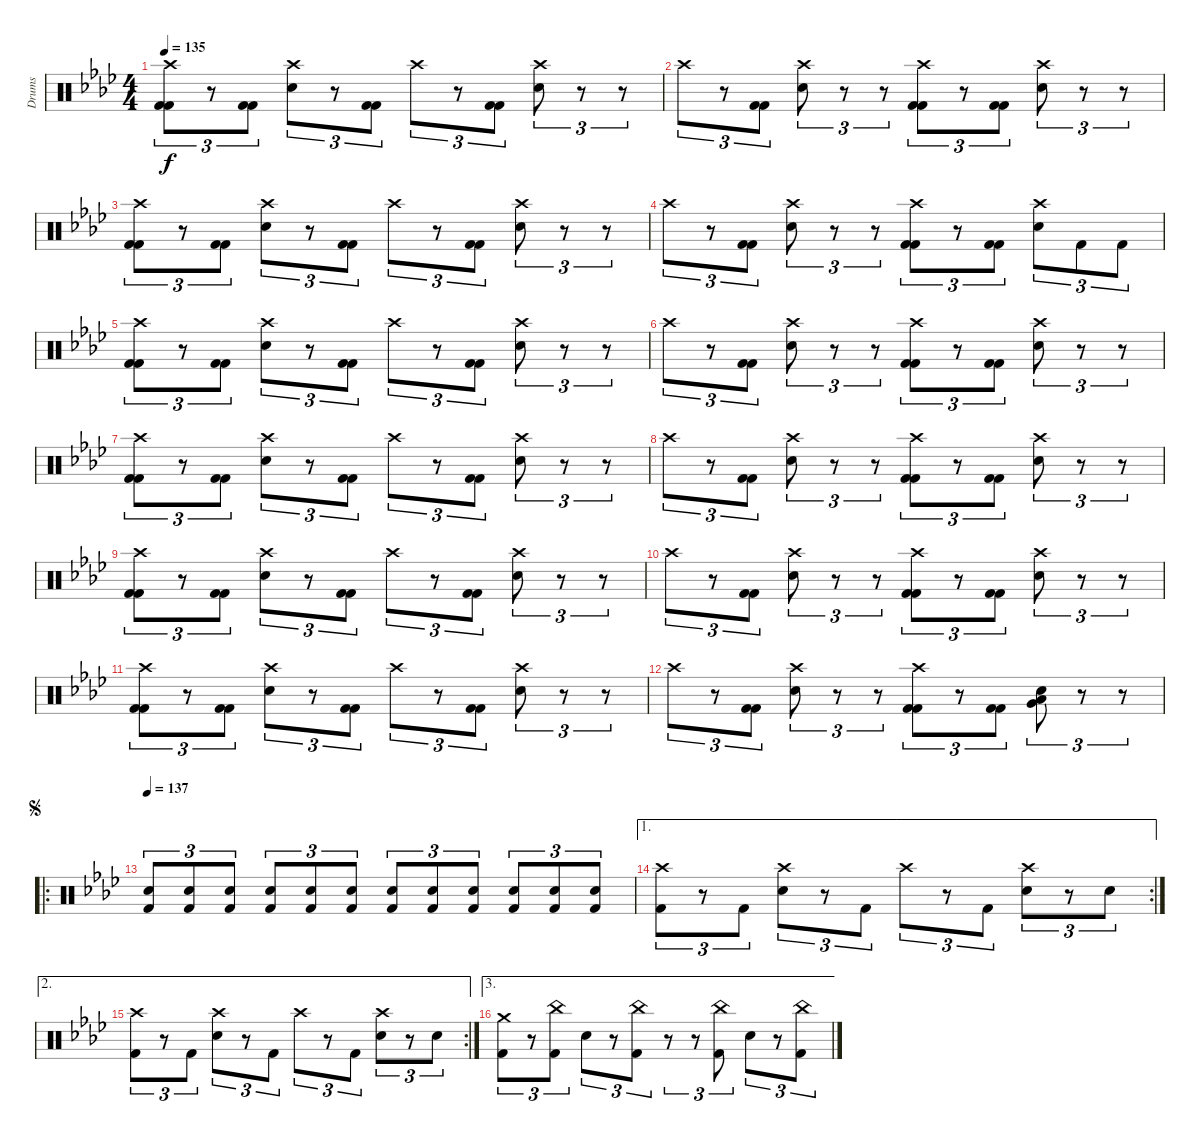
\track ("Drums" "Drums") {instrument percussion}
\staff {score}
\articulation defaults
\ts (4 4)
\tempo 135
\clef neutral
\ks ab
("Crash high (hit)" "Kick (hit) 2" "Kick (hit) 2").8{tu (3 2) dy f} r.8{tu (3 2)} ("Kick (hit) 2" "Kick (hit) 2").8{tu (3 2)} ("Crash high (hit)" "Electric Snare (hit)").8{tu (3 2)} r.8{tu (3 2)} ("Kick (hit) 2" "Kick (hit) 2").8{tu (3 2)} "Crash high (hit)".8{tu (3 2)} r.8{tu (3 2)} ("Kick (hit) 2" "Kick (hit) 2").8{tu (3 2)} ("Crash high (hit)" "Electric Snare (hit)").8{tu (3 2)} r.8{tu (3 2)} r.8{tu (3 2)} |
"Crash high (hit)".8{tu (3 2)} r.8{tu (3 2)} ("Kick (hit) 2" "Kick (hit) 2").8{tu (3 2)} ("Crash high (hit)" "Electric Snare (hit)").8{tu (3 2)} r.8{tu (3 2)} r.8{tu (3 2)} ("Crash high (hit)" "Kick (hit) 2" "Kick (hit) 2").8{tu (3 2)} r.8{tu (3 2)} ("Kick (hit) 2" "Kick (hit) 2").8{tu (3 2)} ("Crash high (hit)" "Electric Snare (hit)").8{tu (3 2)} r.8{tu (3 2)} r.8{tu (3 2)} |
("Crash high (hit)" "Kick (hit) 2" "Kick (hit) 2").8{tu (3 2)} r.8{tu (3 2)} ("Kick (hit) 2" "Kick (hit) 2").8{tu (3 2)} ("Crash high (hit)" "Electric Snare (hit)").8{tu (3 2)} r.8{tu (3 2)} ("Kick (hit) 2" "Kick (hit) 2").8{tu (3 2)} "Crash high (hit)".8{tu (3 2)} r.8{tu (3 2)} ("Kick (hit) 2" "Kick (hit) 2").8{tu (3 2)} ("Crash high (hit)" "Electric Snare (hit)").8{tu (3 2)} r.8{tu (3 2)} r.8{tu (3 2)} |
"Crash high (hit)".8{tu (3 2)} r.8{tu (3 2)} ("Kick (hit) 2" "Kick (hit) 2").8{tu (3 2)} ("Crash high (hit)" "Electric Snare (hit)").8{tu (3 2)} r.8{tu (3 2)} r.8{tu (3 2)} ("Crash high (hit)" "Kick (hit) 2" "Kick (hit) 2").8{tu (3 2)} r.8{tu (3 2)} ("Kick (hit) 2" "Kick (hit) 2").8{tu (3 2)} ("Crash high (hit)" "Electric Snare (hit)").8{tu (3 2)} "Kick (hit) 2".8{tu (3 2)} "Kick (hit) 2".8{tu (3 2)} |
("Crash high (hit)" "Kick (hit) 2" "Kick (hit) 2").8{tu (3 2)} r.8{tu (3 2)} ("Kick (hit) 2" "Kick (hit) 2").8{tu (3 2)} ("Crash high (hit)" "Electric Snare (hit)").8{tu (3 2)} r.8{tu (3 2)} ("Kick (hit) 2" "Kick (hit) 2").8{tu (3 2)} "Crash high (hit)".8{tu (3 2)} r.8{tu (3 2)} ("Kick (hit) 2" "Kick (hit) 2").8{tu (3 2)} ("Crash high (hit)" "Electric Snare (hit)").8{tu (3 2)} r.8{tu (3 2)} r.8{tu (3 2)} |
"Crash high (hit)".8{tu (3 2)} r.8{tu (3 2)} ("Kick (hit) 2" "Kick (hit) 2").8{tu (3 2)} ("Crash high (hit)" "Electric Snare (hit)").8{tu (3 2)} r.8{tu (3 2)} r.8{tu (3 2)} ("Crash high (hit)" "Kick (hit) 2" "Kick (hit) 2").8{tu (3 2)} r.8{tu (3 2)} ("Kick (hit) 2" "Kick (hit) 2").8{tu (3 2)} ("Crash high (hit)" "Electric Snare (hit)").8{tu (3 2)} r.8{tu (3 2)} r.8{tu (3 2)} |
("Crash high (hit)" "Kick (hit) 2" "Kick (hit) 2").8{tu (3 2)} r.8{tu (3 2)} ("Kick (hit) 2" "Kick (hit) 2").8{tu (3 2)} ("Crash high (hit)" "Electric Snare (hit)").8{tu (3 2)} r.8{tu (3 2)} ("Kick (hit) 2" "Kick (hit) 2").8{tu (3 2)} "Crash high (hit)".8{tu (3 2)} r.8{tu (3 2)} ("Kick (hit) 2" "Kick (hit) 2").8{tu (3 2)} ("Crash high (hit)" "Electric Snare (hit)").8{tu (3 2)} r.8{tu (3 2)} r.8{tu (3 2)} |
"Crash high (hit)".8{tu (3 2)} r.8{tu (3 2)} ("Kick (hit) 2" "Kick (hit) 2").8{tu (3 2)} ("Crash high (hit)" "Electric Snare (hit)").8{tu (3 2)} r.8{tu (3 2)} r.8{tu (3 2)} ("Crash high (hit)" "Kick (hit) 2" "Kick (hit) 2").8{tu (3 2)} r.8{tu (3 2)} ("Kick (hit) 2" "Kick (hit) 2").8{tu (3 2)} ("Crash high (hit)" "Electric Snare (hit)").8{tu (3 2)} r.8{tu (3 2)} r.8{tu (3 2)} |
("Crash high (hit)" "Kick (hit) 2" "Kick (hit) 2").8{tu (3 2)} r.8{tu (3 2)} ("Kick (hit) 2" "Kick (hit) 2").8{tu (3 2)} ("Crash high (hit)" "Electric Snare (hit)").8{tu (3 2)} r.8{tu (3 2)} ("Kick (hit) 2" "Kick (hit) 2").8{tu (3 2)} "Crash high (hit)".8{tu (3 2)} r.8{tu (3 2)} ("Kick (hit) 2" "Kick (hit) 2").8{tu (3 2)} ("Crash high (hit)" "Electric Snare (hit)").8{tu (3 2)} r.8{tu (3 2)} r.8{tu (3 2)} |
"Crash high (hit)".8{tu (3 2)} r.8{tu (3 2)} ("Kick (hit) 2" "Kick (hit) 2").8{tu (3 2)} ("Crash high (hit)" "Electric Snare (hit)").8{tu (3 2)} r.8{tu (3 2)} r.8{tu (3 2)} ("Crash high (hit)" "Kick (hit) 2" "Kick (hit) 2").8{tu (3 2)} r.8{tu (3 2)} ("Kick (hit) 2" "Kick (hit) 2").8{tu (3 2)} ("Crash high (hit)" "Electric Snare (hit)").8{tu (3 2)} r.8{tu (3 2)} r.8{tu (3 2)} |
("Crash high (hit)" "Kick (hit) 2" "Kick (hit) 2").8{tu (3 2)} r.8{tu (3 2)} ("Kick (hit) 2" "Kick (hit) 2").8{tu (3 2)} ("Crash high (hit)" "Electric Snare (hit)").8{tu (3 2)} r.8{tu (3 2)} ("Kick (hit) 2" "Kick (hit) 2").8{tu (3 2)} "Crash high (hit)".8{tu (3 2)} r.8{tu (3 2)} ("Kick (hit) 2" "Kick (hit) 2").8{tu (3 2)} ("Crash high (hit)" "Electric Snare (hit)").8{tu (3 2)} r.8{tu (3 2)} r.8{tu (3 2)} |
"Crash high (hit)".8{tu (3 2)} r.8{tu (3 2)} ("Kick (hit) 2" "Kick (hit) 2").8{tu (3 2)} ("Crash high (hit)" "Electric Snare (hit)").8{tu (3 2)} r.8{tu (3 2)} r.8{tu (3 2)} ("Crash high (hit)" "Kick (hit) 2" "Kick (hit) 2").8{tu (3 2)} r.8{tu (3 2)} ("Kick (hit) 2" "Kick (hit) 2").8{tu (3 2)} ("Electric Snare (hit)" "Very Low Tom (hit)" "Low Floor Tom (hit)").8{tu (3 2)} r.8{tu (3 2)} r.8{tu (3 2)} |
\ro
\jump segno
\tempo 137
("Electric Snare (hit)" "Kick (hit) 2").8{tu (3 2)} ("Electric Snare (hit)" "Kick (hit) 2").8{tu (3 2)} ("Electric Snare (hit)" "Kick (hit) 2").8{tu (3 2)} ("Electric Snare (hit)" "Kick (hit) 2").8{tu (3 2)} ("Electric Snare (hit)" "Kick (hit) 2").8{tu (3 2)} ("Electric Snare (hit)" "Kick (hit) 2").8{tu (3 2)} ("Electric Snare (hit)" "Kick (hit) 2").8{tu (3 2)} ("Electric Snare (hit)" "Kick (hit) 2").8{tu (3 2)} ("Electric Snare (hit)" "Kick (hit) 2").8{tu (3 2)} ("Electric Snare (hit)" "Kick (hit) 2").8{tu (3 2)} ("Electric Snare (hit)" "Kick (hit) 2").8{tu (3 2)} ("Electric Snare (hit)" "Kick (hit) 2").8{tu (3 2)} |
\ae 1
\rc 2
("Crash high (hit)" "Kick (hit) 2").8{tu (3 2)} r.8{tu (3 2)} "Kick (hit) 2".8{tu (3 2)} ("Crash high (hit)" "Electric Snare (hit)").8{tu (3 2)} r.8{tu (3 2)} "Kick (hit) 2".8{tu (3 2)} "Crash high (hit)".8{tu (3 2)} r.8{tu (3 2)} "Kick (hit) 2".8{tu (3 2)} ("Crash high (hit)" "Electric Snare (hit)").8{tu (3 2)} r.8{tu (3 2)} "Electric Snare (hit)".8{tu (3 2)} |
\ae 2
\rc 2
("Crash high (hit)" "Kick (hit) 2").8{tu (3 2)} r.8{tu (3 2)} "Kick (hit) 2".8{tu (3 2)} ("Crash high (hit)" "Electric Snare (hit)").8{tu (3 2)} r.8{tu (3 2)} "Kick (hit) 2".8{tu (3 2)} "Crash high (hit)".8{tu (3 2)} r.8{tu (3 2)} "Kick (hit) 2".8{tu (3 2)} ("Crash high (hit)" "Electric Snare (hit)").8{tu (3 2)} r.8{tu (3 2)} "Electric Snare (hit)".8{tu (3 2)} |
\ae 3
("Crash medium (hit)" "Kick (hit) 2").8{tu (3 2)} r.8{tu (3 2)} ("China (hit)" "Kick (hit) 2").8{tu (3 2)} "Electric Snare (hit)".8{tu (3 2)} r.8{tu (3 2)} ("China (hit)" "Kick (hit) 2").8{tu (3 2)} r.8{tu (3 2)} r.8{tu (3 2)} ("China (hit)" "Kick (hit) 2").8{tu (3 2)} "Electric Snare (hit)".8{tu (3 2)} r.8{tu (3 2)} ("China (hit)" "Kick (hit) 2").8{tu (3 2)}
